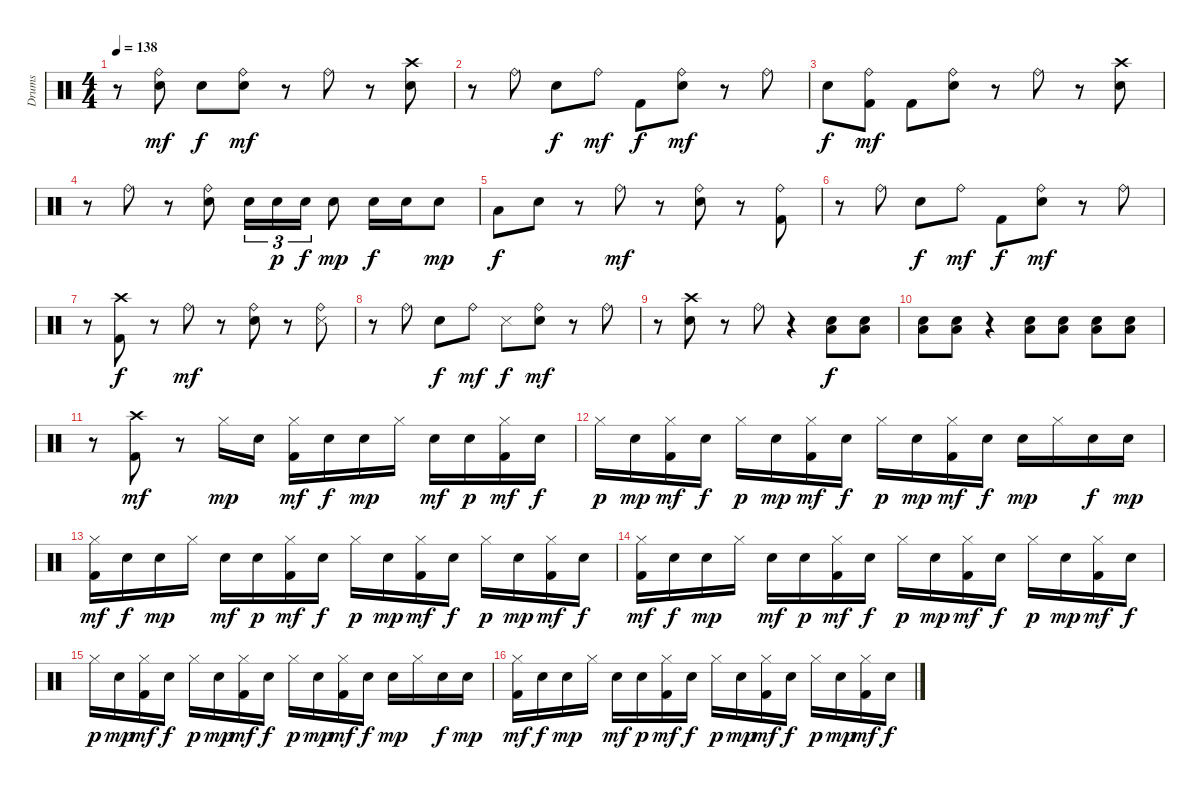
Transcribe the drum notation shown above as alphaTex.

\track ("Drums" "Drums") {instrument percussion}
\staff {score}
\articulation defaults
\ts (4 4)
\tempo 138
\clef neutral
\ks c
r.8{dy mf} ("Electric Snare (hit)" "Ride (bell)").8 "Electric Snare (hit)".8{dy f} ("Electric Snare (hit)" "Ride (bell)").8{dy mf} r.8 "Ride (bell)".8 r.8 ("Electric Snare (hit)" "Crash high (hit)").8 |
r.8 "Ride (bell)".8 "Electric Snare (hit)".8{dy f} "Ride (bell)".8{dy mf} "Kick (hit) 2".8{dy f} ("Electric Snare (hit)" "Ride (bell)").8{dy mf} r.8 "Ride (bell)".8 |
"Electric Snare (hit)".8{dy f} ("Kick (hit) 2" "Ride (bell)").8{dy mf} "Kick (hit) 2".8 ("Electric Snare (hit)" "Ride (bell)").8 r.8 "Ride (bell)".8 r.8 ("Electric Snare (hit)" "Crash high (hit)").8 |
r.8 "Ride (bell)".8 r.8 ("Electric Snare (hit)" "Ride (bell)").8 "Electric Snare (hit)".16{tu (3 2)} "Electric Snare (hit)".16{tu (3 2) dy p} "Electric Snare (hit)".16{tu (3 2) dy f} "Electric Snare (hit)".8{dy mp} "Electric Snare (hit)".16{dy f} "Electric Snare (hit)".16 "Electric Snare (hit)".8{dy mp} |
"Low Tom (hit)".8{dy f} "Electric Snare (hit)".8 r.8 "Ride (bell)".8{dy mf} r.8 ("Electric Snare (hit)" "Ride (bell)").8 r.8 ("Kick (hit) 2" "Ride (bell)").8 |
r.8 "Ride (bell)".8 "Electric Snare (hit)".8{dy f} "Ride (bell)".8{dy mf} "Kick (hit) 2".8{dy f} ("Electric Snare (hit)" "Ride (bell)").8{dy mf} r.8 "Ride (bell)".8 |
r.8 ("Kick (hit) 2" "Crash high (hit)").8{dy f} r.8 "Ride (bell)".8{dy mf} r.8 ("Electric Snare (hit)" "Ride (bell)").8 r.8 ("Snare (side stick) 3" "Ride (bell)").8 |
r.8 "Ride (bell)".8 "Electric Snare (hit)".8{dy f} "Ride (bell)".8{dy mf} "Snare (side stick) 3".8{dy f} ("Electric Snare (hit)" "Ride (bell)").8{dy mf} r.8 "Ride (bell)".8 |
r.8 ("Electric Snare (hit)" "Crash high (hit)").8 r.8 "Ride (bell)".8 r.4 ("Electric Snare (hit)" "Low Floor Tom (hit)").8{dy f} ("Electric Snare (hit)" "Low Floor Tom (hit)").8 |
("Electric Snare (hit)" "Low Floor Tom (hit)").8 ("Electric Snare (hit)" "Low Floor Tom (hit)").8 r.4 ("Electric Snare (hit)" "Low Floor Tom (hit)").8 ("Electric Snare (hit)" "Low Floor Tom (hit)").8 ("Electric Snare (hit)" "Low Floor Tom (hit)").8 ("Electric Snare (hit)" "Low Floor Tom (hit)").8 |
r.8 ("Crash high (hit)" "Kick (hit) 2").8{dy mf} r.8 "Hi-Hat (closed)".16{dy mp} "Electric Snare (hit)".16 ("Kick (hit) 2" "Hi-Hat (closed)").16{dy mf} "Electric Snare (hit)".16{dy f} "Electric Snare (hit)".16{dy mp} "Hi-Hat (closed)".16 "Electric Snare (hit)".16{dy mf} "Electric Snare (hit)".16{dy p} ("Kick (hit) 2" "Hi-Hat (closed)").16{dy mf} "Electric Snare (hit)".16{dy f} |
"Hi-Hat (closed)".16{dy p} "Electric Snare (hit)".16{dy mp} ("Kick (hit) 2" "Hi-Hat (closed)").16{dy mf} "Electric Snare (hit)".16{dy f} "Hi-Hat (closed)".16{dy p} "Electric Snare (hit)".16{dy mp} ("Kick (hit) 2" "Hi-Hat (closed)").16{dy mf} "Electric Snare (hit)".16{dy f} "Hi-Hat (closed)".16{dy p} "Electric Snare (hit)".16{dy mp} ("Kick (hit) 2" "Hi-Hat (closed)").16{dy mf} "Electric Snare (hit)".16{dy f} "Electric Snare (hit)".16{dy mp} "Hi-Hat (closed)".16 "Electric Snare (hit)".16{dy f} "Electric Snare (hit)".16{dy mp} |
("Kick (hit) 2" "Hi-Hat (closed)").16{dy mf} "Electric Snare (hit)".16{dy f} "Electric Snare (hit)".16{dy mp} "Hi-Hat (closed)".16 "Electric Snare (hit)".16{dy mf} "Electric Snare (hit)".16{dy p} ("Kick (hit) 2" "Hi-Hat (closed)").16{dy mf} "Electric Snare (hit)".16{dy f} "Hi-Hat (closed)".16{dy p} "Electric Snare (hit)".16{dy mp} ("Kick (hit) 2" "Hi-Hat (closed)").16{dy mf} "Electric Snare (hit)".16{dy f} "Hi-Hat (closed)".16{dy p} "Electric Snare (hit)".16{dy mp} ("Kick (hit) 2" "Hi-Hat (closed)").16{dy mf} "Electric Snare (hit)".16{dy f} |
("Kick (hit) 2" "Hi-Hat (closed)").16{dy mf} "Electric Snare (hit)".16{dy f} "Electric Snare (hit)".16{dy mp} "Hi-Hat (closed)".16 "Electric Snare (hit)".16{dy mf} "Electric Snare (hit)".16{dy p} ("Kick (hit) 2" "Hi-Hat (closed)").16{dy mf} "Electric Snare (hit)".16{dy f} "Hi-Hat (closed)".16{dy p} "Electric Snare (hit)".16{dy mp} ("Kick (hit) 2" "Hi-Hat (closed)").16{dy mf} "Electric Snare (hit)".16{dy f} "Hi-Hat (closed)".16{dy p} "Electric Snare (hit)".16{dy mp} ("Kick (hit) 2" "Hi-Hat (closed)").16{dy mf} "Electric Snare (hit)".16{dy f} |
"Hi-Hat (closed)".16{dy p} "Electric Snare (hit)".16{dy mp} ("Kick (hit) 2" "Hi-Hat (closed)").16{dy mf} "Electric Snare (hit)".16{dy f} "Hi-Hat (closed)".16{dy p} "Electric Snare (hit)".16{dy mp} ("Kick (hit) 2" "Hi-Hat (closed)").16{dy mf} "Electric Snare (hit)".16{dy f} "Hi-Hat (closed)".16{dy p} "Electric Snare (hit)".16{dy mp} ("Kick (hit) 2" "Hi-Hat (closed)").16{dy mf} "Electric Snare (hit)".16{dy f} "Electric Snare (hit)".16{dy mp} "Hi-Hat (closed)".16 "Electric Snare (hit)".16{dy f} "Electric Snare (hit)".16{dy mp} |
("Kick (hit) 2" "Hi-Hat (closed)").16{dy mf} "Electric Snare (hit)".16{dy f} "Electric Snare (hit)".16{dy mp} "Hi-Hat (closed)".16 "Electric Snare (hit)".16{dy mf} "Electric Snare (hit)".16{dy p} ("Kick (hit) 2" "Hi-Hat (closed)").16{dy mf} "Electric Snare (hit)".16{dy f} "Hi-Hat (closed)".16{dy p} "Electric Snare (hit)".16{dy mp} ("Kick (hit) 2" "Hi-Hat (closed)").16{dy mf} "Electric Snare (hit)".16{dy f} "Hi-Hat (closed)".16{dy p} "Electric Snare (hit)".16{dy mp} ("Kick (hit) 2" "Hi-Hat (closed)").16{dy mf} "Electric Snare (hit)".16{dy f}
